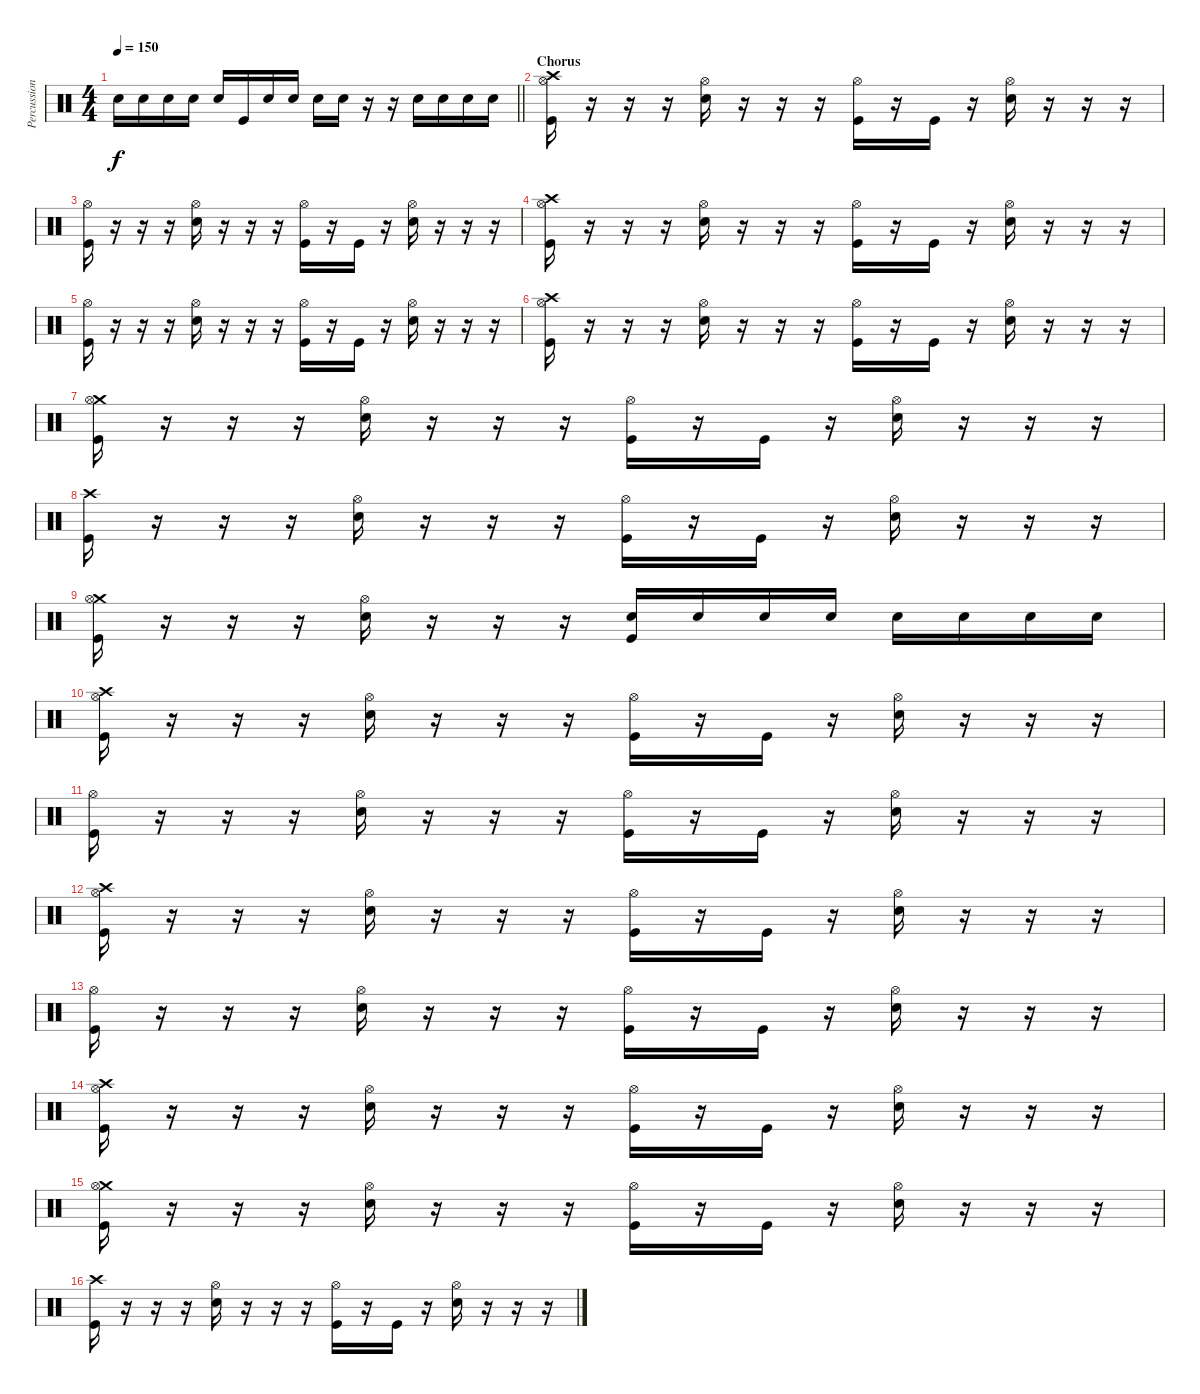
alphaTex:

\track ("Percussion" "Percussion") {instrument percussion}
\staff {score}
\articulation defaults
\ts (4 4)
\tempo 150
\clef neutral
\barLineRight lightlight
\ks c "Electric Snare (hit)".16{dy f} "Electric Snare (hit)".16 "Electric Snare (hit)".16 "Electric Snare (hit)".16 "Electric Snare (hit)".16 "Kick (hit)".16 "Electric Snare (hit)".16 "Electric Snare (hit)".16 "Electric Snare (hit)".16 "Electric Snare (hit)".16
r.16 r.16 "Electric Snare (hit)".16 "Electric Snare (hit)".16 "Electric Snare (hit)".16 "Electric Snare (hit)".16 |
\section ("" "Chorus")
("Crash high (hit)" "Hi-Hat (open)" "Kick (hit)").16 r.16 r.16 r.16 ("Hi-Hat (open)" "Electric Snare (hit)").16 r.16 r.16 r.16 ("Hi-Hat (open)" "Kick (hit)").16 r.16 "Kick (hit)".16 r.16 ("Hi-Hat (open)" "Electric Snare (hit)").16 r.16 r.16 r.16 |
("Hi-Hat (open)" "Kick (hit)").16 r.16 r.16 r.16 ("Hi-Hat (open)" "Electric Snare (hit)").16 r.16 r.16 r.16 ("Hi-Hat (open)" "Kick (hit)").16 r.16 "Kick (hit)".16 r.16 ("Hi-Hat (open)" "Electric Snare (hit)").16 r.16 r.16 r.16 |
("Crash high (hit)" "Hi-Hat (open)" "Kick (hit)").16 r.16 r.16 r.16 ("Hi-Hat (open)" "Electric Snare (hit)").16 r.16 r.16 r.16 ("Hi-Hat (open)" "Kick (hit)").16 r.16 "Kick (hit)".16 r.16 ("Hi-Hat (open)" "Electric Snare (hit)").16 r.16 r.16 r.16 |
("Hi-Hat (open)" "Kick (hit)").16 r.16 r.16 r.16 ("Hi-Hat (open)" "Electric Snare (hit)").16 r.16 r.16 r.16 ("Hi-Hat (open)" "Kick (hit)").16 r.16 "Kick (hit)".16 r.16 ("Hi-Hat (open)" "Electric Snare (hit)").16 r.16 r.16 r.16 |
("Crash high (hit)" "Hi-Hat (open)" "Kick (hit)").16 r.16 r.16 r.16 ("Hi-Hat (open)" "Electric Snare (hit)").16 r.16 r.16 r.16 ("Hi-Hat (open)" "Kick (hit)").16 r.16 "Kick (hit)".16 r.16 ("Hi-Hat (open)" "Electric Snare (hit)").16 r.16 r.16 r.16 |
("Crash medium (hit)" "Hi-Hat (open)" "Kick (hit)").16 r.16 r.16 r.16 ("Hi-Hat (open)" "Electric Snare (hit)").16 r.16 r.16 r.16 ("Hi-Hat (open)" "Kick (hit)").16 r.16 "Kick (hit)".16 r.16 ("Hi-Hat (open)" "Electric Snare (hit)").16 r.16 r.16 r.16 |
("Crash high (hit)" "Kick (hit)").16 r.16 r.16 r.16 ("Hi-Hat (open)" "Electric Snare (hit)").16 r.16 r.16 r.16 ("Hi-Hat (open)" "Kick (hit)").16 r.16 "Kick (hit)".16 r.16 ("Hi-Hat (open)" "Electric Snare (hit)").16 r.16 r.16 r.16 |
("Crash medium (hit)" "Hi-Hat (open)" "Kick (hit)").16 r.16 r.16 r.16 ("Hi-Hat (open)" "Electric Snare (hit)").16 r.16 r.16 r.16 ("Electric Snare (hit)" "Kick (hit)").16 "Electric Snare (hit)".16 "Electric Snare (hit)".16 "Electric Snare (hit)".16 "Electric Snare (hit)".16 "Electric Snare (hit)".16 "Electric Snare (hit)".16 "Electric Snare (hit)".16 |
("Crash high (hit)" "Hi-Hat (open)" "Kick (hit)").16 r.16 r.16 r.16 ("Hi-Hat (open)" "Electric Snare (hit)").16 r.16 r.16 r.16 ("Hi-Hat (open)" "Kick (hit)").16 r.16 "Kick (hit)".16 r.16 ("Hi-Hat (open)" "Electric Snare (hit)").16 r.16 r.16 r.16 |
("Hi-Hat (open)" "Kick (hit)").16 r.16 r.16 r.16 ("Hi-Hat (open)" "Electric Snare (hit)").16 r.16 r.16 r.16 ("Hi-Hat (open)" "Kick (hit)").16 r.16 "Kick (hit)".16 r.16 ("Hi-Hat (open)" "Electric Snare (hit)").16 r.16 r.16 r.16 |
("Crash high (hit)" "Hi-Hat (open)" "Kick (hit)").16 r.16 r.16 r.16 ("Hi-Hat (open)" "Electric Snare (hit)").16 r.16 r.16 r.16 ("Hi-Hat (open)" "Kick (hit)").16 r.16 "Kick (hit)".16 r.16 ("Hi-Hat (open)" "Electric Snare (hit)").16 r.16 r.16 r.16 |
("Hi-Hat (open)" "Kick (hit)").16 r.16 r.16 r.16 ("Hi-Hat (open)" "Electric Snare (hit)").16 r.16 r.16 r.16 ("Hi-Hat (open)" "Kick (hit)").16 r.16 "Kick (hit)".16 r.16 ("Hi-Hat (open)" "Electric Snare (hit)").16 r.16 r.16 r.16 |
("Crash high (hit)" "Hi-Hat (open)" "Kick (hit)").16 r.16 r.16 r.16 ("Hi-Hat (open)" "Electric Snare (hit)").16 r.16 r.16 r.16 ("Hi-Hat (open)" "Kick (hit)").16 r.16 "Kick (hit)".16 r.16 ("Hi-Hat (open)" "Electric Snare (hit)").16 r.16 r.16 r.16 |
("Crash medium (hit)" "Hi-Hat (open)" "Kick (hit)").16 r.16 r.16 r.16 ("Hi-Hat (open)" "Electric Snare (hit)").16 r.16 r.16 r.16 ("Hi-Hat (open)" "Kick (hit)").16 r.16 "Kick (hit)".16 r.16 ("Hi-Hat (open)" "Electric Snare (hit)").16 r.16 r.16 r.16 |
("Crash high (hit)" "Kick (hit)").16 r.16 r.16 r.16 ("Hi-Hat (open)" "Electric Snare (hit)").16 r.16 r.16 r.16 ("Hi-Hat (open)" "Kick (hit)").16 r.16 "Kick (hit)".16 r.16 ("Hi-Hat (open)" "Electric Snare (hit)").16 r.16 r.16 r.16
